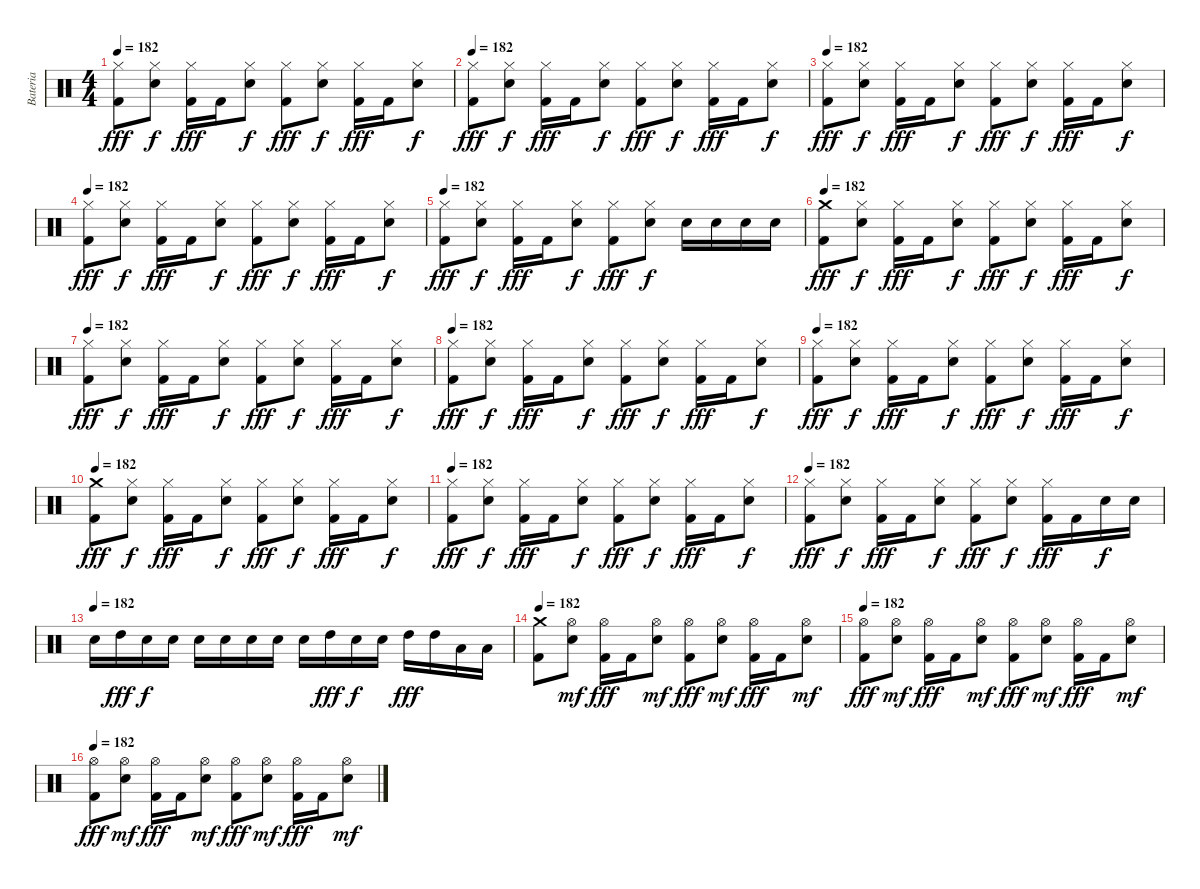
\track ("Bateria" "Bateria") {instrument percussion}
\staff {score}
\articulation defaults
\ts (4 4)
\tempo 182
\clef neutral
\ks c
("Hi-Hat (closed)" "Kick (hit) 2").8{dy fff} ("Hi-Hat (closed)" "Electric Snare (hit)").8{dy f} ("Hi-Hat (closed)" "Kick (hit) 2").16{dy fff} "Kick (hit) 2".16 ("Hi-Hat (closed)" "Electric Snare (hit)").8{dy f} ("Hi-Hat (closed)" "Kick (hit) 2").8{dy fff} ("Hi-Hat (closed)" "Electric Snare (hit)").8{dy f} ("Hi-Hat (closed)" "Kick (hit) 2").16{dy fff} "Kick (hit) 2".16 ("Hi-Hat (closed)" "Electric Snare (hit)").8{dy f} |
\tempo 182
("Hi-Hat (closed)" "Kick (hit) 2").8{dy fff} ("Hi-Hat (closed)" "Electric Snare (hit)").8{dy f} ("Hi-Hat (closed)" "Kick (hit) 2").16{dy fff} "Kick (hit) 2".16 ("Hi-Hat (closed)" "Electric Snare (hit)").8{dy f} ("Hi-Hat (closed)" "Kick (hit) 2").8{dy fff} ("Hi-Hat (closed)" "Electric Snare (hit)").8{dy f} ("Hi-Hat (closed)" "Kick (hit) 2").16{dy fff} "Kick (hit) 2".16 ("Hi-Hat (closed)" "Electric Snare (hit)").8{dy f} |
\tempo 182
("Hi-Hat (closed)" "Kick (hit) 2").8{dy fff} ("Hi-Hat (closed)" "Electric Snare (hit)").8{dy f} ("Hi-Hat (closed)" "Kick (hit) 2").16{dy fff} "Kick (hit) 2".16 ("Hi-Hat (closed)" "Electric Snare (hit)").8{dy f} ("Hi-Hat (closed)" "Kick (hit) 2").8{dy fff} ("Hi-Hat (closed)" "Electric Snare (hit)").8{dy f} ("Hi-Hat (closed)" "Kick (hit) 2").16{dy fff} "Kick (hit) 2".16 ("Hi-Hat (closed)" "Electric Snare (hit)").8{dy f} |
\tempo 182
("Hi-Hat (closed)" "Kick (hit) 2").8{dy fff} ("Hi-Hat (closed)" "Electric Snare (hit)").8{dy f} ("Hi-Hat (closed)" "Kick (hit) 2").16{dy fff} "Kick (hit) 2".16 ("Hi-Hat (closed)" "Electric Snare (hit)").8{dy f} ("Hi-Hat (closed)" "Kick (hit) 2").8{dy fff} ("Hi-Hat (closed)" "Electric Snare (hit)").8{dy f} ("Hi-Hat (closed)" "Kick (hit) 2").16{dy fff} "Kick (hit) 2".16 ("Hi-Hat (closed)" "Electric Snare (hit)").8{dy f} |
\tempo 182
("Hi-Hat (closed)" "Kick (hit) 2").8{dy fff} ("Hi-Hat (closed)" "Electric Snare (hit)").8{dy f} ("Hi-Hat (closed)" "Kick (hit) 2").16{dy fff} "Kick (hit) 2".16 ("Hi-Hat (closed)" "Electric Snare (hit)").8{dy f} ("Hi-Hat (closed)" "Kick (hit) 2").8{dy fff} ("Hi-Hat (closed)" "Electric Snare (hit)").8{dy f} "Electric Snare (hit)".16 "Electric Snare (hit)".16 "Electric Snare (hit)".16 "Electric Snare (hit)".16 |
\tempo 182
("Crash medium (hit)" "Kick (hit) 2").8{dy fff} ("Hi-Hat (closed)" "Electric Snare (hit)").8{dy f} ("Hi-Hat (closed)" "Kick (hit) 2").16{dy fff} "Kick (hit) 2".16 ("Hi-Hat (closed)" "Electric Snare (hit)").8{dy f} ("Hi-Hat (closed)" "Kick (hit) 2").8{dy fff} ("Hi-Hat (closed)" "Electric Snare (hit)").8{dy f} ("Hi-Hat (closed)" "Kick (hit) 2").16{dy fff} "Kick (hit) 2".16 ("Hi-Hat (closed)" "Electric Snare (hit)").8{dy f} |
\tempo 182
("Hi-Hat (closed)" "Kick (hit) 2").8{dy fff} ("Hi-Hat (closed)" "Electric Snare (hit)").8{dy f} ("Hi-Hat (closed)" "Kick (hit) 2").16{dy fff} "Kick (hit) 2".16 ("Hi-Hat (closed)" "Electric Snare (hit)").8{dy f} ("Hi-Hat (closed)" "Kick (hit) 2").8{dy fff} ("Hi-Hat (closed)" "Electric Snare (hit)").8{dy f} ("Hi-Hat (closed)" "Kick (hit) 2").16{dy fff} "Kick (hit) 2".16 ("Hi-Hat (closed)" "Electric Snare (hit)").8{dy f} |
\tempo 182
("Hi-Hat (closed)" "Kick (hit) 2").8{dy fff} ("Hi-Hat (closed)" "Electric Snare (hit)").8{dy f} ("Hi-Hat (closed)" "Kick (hit) 2").16{dy fff} "Kick (hit) 2".16 ("Hi-Hat (closed)" "Electric Snare (hit)").8{dy f} ("Hi-Hat (closed)" "Kick (hit) 2").8{dy fff} ("Hi-Hat (closed)" "Electric Snare (hit)").8{dy f} ("Hi-Hat (closed)" "Kick (hit) 2").16{dy fff} "Kick (hit) 2".16 ("Hi-Hat (closed)" "Electric Snare (hit)").8{dy f} |
\tempo 182
("Hi-Hat (closed)" "Kick (hit) 2").8{dy fff} ("Hi-Hat (closed)" "Electric Snare (hit)").8{dy f} ("Hi-Hat (closed)" "Kick (hit) 2").16{dy fff} "Kick (hit) 2".16 ("Hi-Hat (closed)" "Electric Snare (hit)").8{dy f} ("Hi-Hat (closed)" "Kick (hit) 2").8{dy fff} ("Hi-Hat (closed)" "Electric Snare (hit)").8{dy f} ("Hi-Hat (closed)" "Kick (hit) 2").16{dy fff} "Kick (hit) 2".16 ("Hi-Hat (closed)" "Electric Snare (hit)").8{dy f} |
\tempo 182
("Crash medium (hit)" "Kick (hit) 2").8{dy fff} ("Hi-Hat (closed)" "Electric Snare (hit)").8{dy f} ("Hi-Hat (closed)" "Kick (hit) 2").16{dy fff} "Kick (hit) 2".16 ("Hi-Hat (closed)" "Electric Snare (hit)").8{dy f} ("Hi-Hat (closed)" "Kick (hit) 2").8{dy fff} ("Hi-Hat (closed)" "Electric Snare (hit)").8{dy f} ("Hi-Hat (closed)" "Kick (hit) 2").16{dy fff} "Kick (hit) 2".16 ("Hi-Hat (closed)" "Electric Snare (hit)").8{dy f} |
\tempo 182
("Hi-Hat (closed)" "Kick (hit) 2").8{dy fff} ("Hi-Hat (closed)" "Electric Snare (hit)").8{dy f} ("Hi-Hat (closed)" "Kick (hit) 2").16{dy fff} "Kick (hit) 2".16 ("Hi-Hat (closed)" "Electric Snare (hit)").8{dy f} ("Hi-Hat (closed)" "Kick (hit) 2").8{dy fff} ("Hi-Hat (closed)" "Electric Snare (hit)").8{dy f} ("Hi-Hat (closed)" "Kick (hit) 2").16{dy fff} "Kick (hit) 2".16 ("Hi-Hat (closed)" "Electric Snare (hit)").8{dy f} |
\tempo 182
("Hi-Hat (closed)" "Kick (hit) 2").8{dy fff} ("Hi-Hat (closed)" "Electric Snare (hit)").8{dy f} ("Hi-Hat (closed)" "Kick (hit) 2").16{dy fff} "Kick (hit) 2".16 ("Hi-Hat (closed)" "Electric Snare (hit)").8{dy f} ("Hi-Hat (closed)" "Kick (hit) 2").8{dy fff} ("Hi-Hat (closed)" "Electric Snare (hit)").8{dy f} ("Hi-Hat (closed)" "Kick (hit) 2").16{dy fff} "Kick (hit) 2".16 "Electric Snare (hit)".16{dy f} "Electric Snare (hit)".16 |
\tempo (182)
"Electric Snare (hit)".16 "High Tom (hit)".16{dy fff} "Electric Snare (hit)".16{dy f} "Electric Snare (hit)".16 "Electric Snare (hit)".16 "Electric Snare (hit)".16 "Electric Snare (hit)".16 "Electric Snare (hit)".16 "Electric Snare (hit)".16 "High Tom (hit)".16{dy fff} "Electric Snare (hit)".16{dy f} "Electric Snare (hit)".16 "High Tom (hit)".16{dy fff} "High Tom (hit)".16 "Low Tom (hit)".16 "Low Tom (hit)".16 |
\tempo 182
("Crash medium (hit)" "Kick (hit) 2").8 ("Hi-Hat (open)" "Electric Snare (hit)").8{dy mf} ("Hi-Hat (open)" "Kick (hit) 2").16{dy fff} "Kick (hit) 2".16 ("Hi-Hat (open)" "Electric Snare (hit)").8{dy mf} ("Hi-Hat (open)" "Kick (hit) 2").8{dy fff} ("Hi-Hat (open)" "Electric Snare (hit)").8{dy mf} ("Hi-Hat (open)" "Kick (hit) 2").16{dy fff} "Kick (hit) 2".16 ("Hi-Hat (open)" "Electric Snare (hit)").8{dy mf} |
\tempo 182
("Hi-Hat (open)" "Kick (hit) 2").8{dy fff} ("Hi-Hat (open)" "Electric Snare (hit)").8{dy mf} ("Hi-Hat (open)" "Kick (hit) 2").16{dy fff} "Kick (hit) 2".16 ("Hi-Hat (open)" "Electric Snare (hit)").8{dy mf} ("Hi-Hat (open)" "Kick (hit) 2").8{dy fff} ("Hi-Hat (open)" "Electric Snare (hit)").8{dy mf} ("Hi-Hat (open)" "Kick (hit) 2").16{dy fff} "Kick (hit) 2".16 ("Hi-Hat (open)" "Electric Snare (hit)").8{dy mf} |
\tempo 182
("Hi-Hat (open)" "Kick (hit) 2").8{dy fff} ("Hi-Hat (open)" "Electric Snare (hit)").8{dy mf} ("Hi-Hat (open)" "Kick (hit) 2").16{dy fff} "Kick (hit) 2".16 ("Hi-Hat (open)" "Electric Snare (hit)").8{dy mf} ("Hi-Hat (open)" "Kick (hit) 2").8{dy fff} ("Hi-Hat (open)" "Electric Snare (hit)").8{dy mf} ("Hi-Hat (open)" "Kick (hit) 2").16{dy fff} "Kick (hit) 2".16 ("Hi-Hat (open)" "Electric Snare (hit)").8{dy mf}
